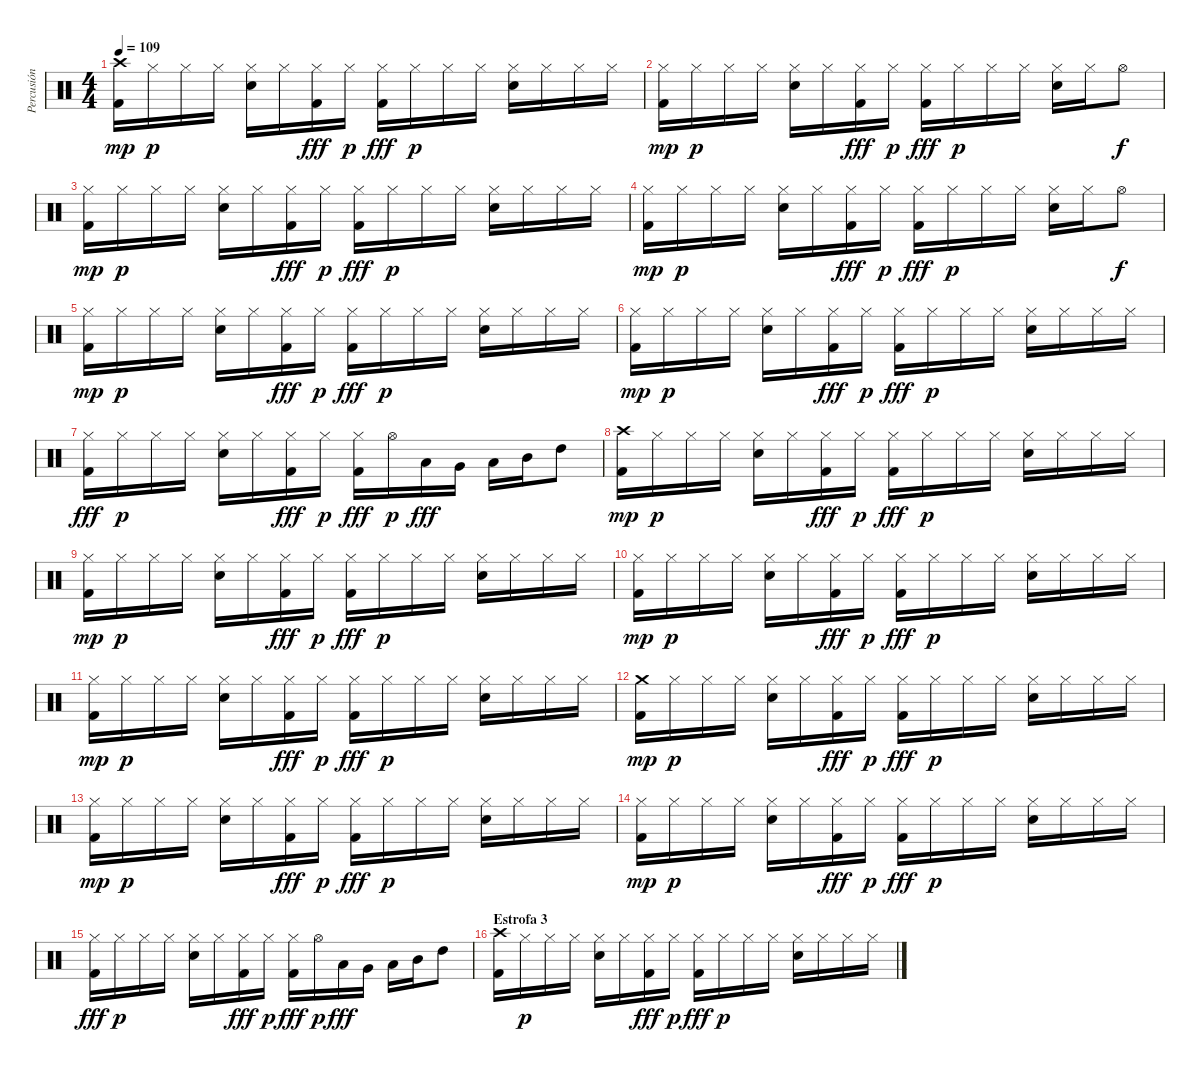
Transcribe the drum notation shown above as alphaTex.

\track ("Percusión" "Percusión") {instrument percussion}
\staff {score}
\articulation defaults
\ts (4 4)
\tempo 109
\clef neutral
\ks c
("Crash high (hit)" "Kick (hit) 2").16{dy mp} "Hi-Hat (closed)".16{dy p} "Hi-Hat (closed)".16 "Hi-Hat (closed)".16 ("Hi-Hat (closed)" "Snare (hit) 2").16 "Hi-Hat (closed)".16 ("Hi-Hat (closed)" "Kick (hit) 2").16{dy fff} "Hi-Hat (closed)".16{dy p} ("Hi-Hat (closed)" "Kick (hit) 2").16{dy fff} "Hi-Hat (closed)".16{dy p} "Hi-Hat (closed)".16 "Hi-Hat (closed)".16 ("Hi-Hat (closed)" "Snare (hit) 2").16 "Hi-Hat (closed)".16 "Hi-Hat (closed)".16 "Hi-Hat (closed)".16 |
("Hi-Hat (closed)" "Kick (hit) 2").16{dy mp} "Hi-Hat (closed)".16{dy p} "Hi-Hat (closed)".16 "Hi-Hat (closed)".16 ("Hi-Hat (closed)" "Snare (hit) 2").16 "Hi-Hat (closed)".16 ("Hi-Hat (closed)" "Kick (hit) 2").16{dy fff} "Hi-Hat (closed)".16{dy p} ("Hi-Hat (closed)" "Kick (hit) 2").16{dy fff} "Hi-Hat (closed)".16{dy p} "Hi-Hat (closed)".16 "Hi-Hat (closed)".16 ("Hi-Hat (closed)" "Snare (hit) 2").16 "Hi-Hat (closed)".16 "Hi-Hat (open)".8{dy f} |
("Hi-Hat (closed)" "Kick (hit) 2").16{dy mp} "Hi-Hat (closed)".16{dy p} "Hi-Hat (closed)".16 "Hi-Hat (closed)".16 ("Hi-Hat (closed)" "Snare (hit) 2").16 "Hi-Hat (closed)".16 ("Hi-Hat (closed)" "Kick (hit) 2").16{dy fff} "Hi-Hat (closed)".16{dy p} ("Hi-Hat (closed)" "Kick (hit) 2").16{dy fff} "Hi-Hat (closed)".16{dy p} "Hi-Hat (closed)".16 "Hi-Hat (closed)".16 ("Hi-Hat (closed)" "Snare (hit) 2").16 "Hi-Hat (closed)".16 "Hi-Hat (closed)".16 "Hi-Hat (closed)".16 |
("Hi-Hat (closed)" "Kick (hit) 2").16{dy mp} "Hi-Hat (closed)".16{dy p} "Hi-Hat (closed)".16 "Hi-Hat (closed)".16 ("Hi-Hat (closed)" "Snare (hit) 2").16 "Hi-Hat (closed)".16 ("Hi-Hat (closed)" "Kick (hit) 2").16{dy fff} "Hi-Hat (closed)".16{dy p} ("Hi-Hat (closed)" "Kick (hit) 2").16{dy fff} "Hi-Hat (closed)".16{dy p} "Hi-Hat (closed)".16 "Hi-Hat (closed)".16 ("Hi-Hat (closed)" "Snare (hit) 2").16 "Hi-Hat (closed)".16 "Hi-Hat (open)".8{dy f} |
("Hi-Hat (closed)" "Kick (hit) 2").16{dy mp} "Hi-Hat (closed)".16{dy p} "Hi-Hat (closed)".16 "Hi-Hat (closed)".16 ("Hi-Hat (closed)" "Snare (hit) 2").16 "Hi-Hat (closed)".16 ("Hi-Hat (closed)" "Kick (hit) 2").16{dy fff} "Hi-Hat (closed)".16{dy p} ("Hi-Hat (closed)" "Kick (hit) 2").16{dy fff} "Hi-Hat (closed)".16{dy p} "Hi-Hat (closed)".16 "Hi-Hat (closed)".16 ("Hi-Hat (closed)" "Snare (hit) 2").16 "Hi-Hat (closed)".16 "Hi-Hat (closed)".16 "Hi-Hat (closed)".16 |
("Hi-Hat (closed)" "Kick (hit) 2").16{dy mp} "Hi-Hat (closed)".16{dy p} "Hi-Hat (closed)".16 "Hi-Hat (closed)".16 ("Hi-Hat (closed)" "Snare (hit) 2").16 "Hi-Hat (closed)".16 ("Hi-Hat (closed)" "Kick (hit) 2").16{dy fff} "Hi-Hat (closed)".16{dy p} ("Hi-Hat (closed)" "Kick (hit) 2").16{dy fff} "Hi-Hat (closed)".16{dy p} "Hi-Hat (closed)".16 "Hi-Hat (closed)".16 ("Hi-Hat (closed)" "Snare (hit) 2").16 "Hi-Hat (closed)".16 "Hi-Hat (closed)".16 "Hi-Hat (closed)".16 |
("Hi-Hat (closed)" "Kick (hit) 2").16{dy fff} "Hi-Hat (closed)".16{dy p} "Hi-Hat (closed)".16 "Hi-Hat (closed)".16 ("Hi-Hat (closed)" "Snare (hit) 2").16 "Hi-Hat (closed)".16 ("Hi-Hat (closed)" "Kick (hit) 2").16{dy fff} "Hi-Hat (closed)".16{dy p} ("Hi-Hat (closed)" "Kick (hit) 2").16{dy fff} "Hi-Hat (open)".16{dy p} "Low Floor Tom (hit)".16{dy fff} "Very Low Tom (hit)".16 "Low Tom (hit)".16 "Mid Tom (hit)".16 "High Tom (hit)".8 |
("Crash high (hit)" "Kick (hit) 2").16{dy mp} "Hi-Hat (closed)".16{dy p} "Hi-Hat (closed)".16 "Hi-Hat (closed)".16 ("Hi-Hat (closed)" "Snare (hit) 2").16 "Hi-Hat (closed)".16 ("Hi-Hat (closed)" "Kick (hit) 2").16{dy fff} "Hi-Hat (closed)".16{dy p} ("Hi-Hat (closed)" "Kick (hit) 2").16{dy fff} "Hi-Hat (closed)".16{dy p} "Hi-Hat (closed)".16 "Hi-Hat (closed)".16 ("Hi-Hat (closed)" "Snare (hit) 2").16 "Hi-Hat (closed)".16 "Hi-Hat (closed)".16 "Hi-Hat (closed)".16 |
("Hi-Hat (closed)" "Kick (hit) 2").16{dy mp} "Hi-Hat (closed)".16{dy p} "Hi-Hat (closed)".16 "Hi-Hat (closed)".16 ("Hi-Hat (closed)" "Snare (hit) 2").16 "Hi-Hat (closed)".16 ("Hi-Hat (closed)" "Kick (hit) 2").16{dy fff} "Hi-Hat (closed)".16{dy p} ("Hi-Hat (closed)" "Kick (hit) 2").16{dy fff} "Hi-Hat (closed)".16{dy p} "Hi-Hat (closed)".16 "Hi-Hat (closed)".16 ("Hi-Hat (closed)" "Snare (hit) 2").16 "Hi-Hat (closed)".16 "Hi-Hat (closed)".16 "Hi-Hat (closed)".16 |
("Hi-Hat (closed)" "Kick (hit) 2").16{dy mp} "Hi-Hat (closed)".16{dy p} "Hi-Hat (closed)".16 "Hi-Hat (closed)".16 ("Hi-Hat (closed)" "Snare (hit) 2").16 "Hi-Hat (closed)".16 ("Hi-Hat (closed)" "Kick (hit) 2").16{dy fff} "Hi-Hat (closed)".16{dy p} ("Hi-Hat (closed)" "Kick (hit) 2").16{dy fff} "Hi-Hat (closed)".16{dy p} "Hi-Hat (closed)".16 "Hi-Hat (closed)".16 ("Hi-Hat (closed)" "Snare (hit) 2").16 "Hi-Hat (closed)".16 "Hi-Hat (closed)".16 "Hi-Hat (closed)".16 |
("Hi-Hat (closed)" "Kick (hit) 2").16{dy mp} "Hi-Hat (closed)".16{dy p} "Hi-Hat (closed)".16 "Hi-Hat (closed)".16 ("Hi-Hat (closed)" "Snare (hit) 2").16 "Hi-Hat (closed)".16 ("Hi-Hat (closed)" "Kick (hit) 2").16{dy fff} "Hi-Hat (closed)".16{dy p} ("Hi-Hat (closed)" "Kick (hit) 2").16{dy fff} "Hi-Hat (closed)".16{dy p} "Hi-Hat (closed)".16 "Hi-Hat (closed)".16 ("Hi-Hat (closed)" "Snare (hit) 2").16 "Hi-Hat (closed)".16 "Hi-Hat (closed)".16 "Hi-Hat (closed)".16 |
("Crash medium (hit)" "Kick (hit) 2").16{dy mp} "Hi-Hat (closed)".16{dy p} "Hi-Hat (closed)".16 "Hi-Hat (closed)".16 ("Hi-Hat (closed)" "Snare (hit) 2").16 "Hi-Hat (closed)".16 ("Hi-Hat (closed)" "Kick (hit) 2").16{dy fff} "Hi-Hat (closed)".16{dy p} ("Hi-Hat (closed)" "Kick (hit) 2").16{dy fff} "Hi-Hat (closed)".16{dy p} "Hi-Hat (closed)".16 "Hi-Hat (closed)".16 ("Hi-Hat (closed)" "Snare (hit) 2").16 "Hi-Hat (closed)".16 "Hi-Hat (closed)".16 "Hi-Hat (closed)".16 |
("Hi-Hat (closed)" "Kick (hit) 2").16{dy mp} "Hi-Hat (closed)".16{dy p} "Hi-Hat (closed)".16 "Hi-Hat (closed)".16 ("Hi-Hat (closed)" "Snare (hit) 2").16 "Hi-Hat (closed)".16 ("Hi-Hat (closed)" "Kick (hit) 2").16{dy fff} "Hi-Hat (closed)".16{dy p} ("Hi-Hat (closed)" "Kick (hit) 2").16{dy fff} "Hi-Hat (closed)".16{dy p} "Hi-Hat (closed)".16 "Hi-Hat (closed)".16 ("Hi-Hat (closed)" "Snare (hit) 2").16 "Hi-Hat (closed)".16 "Hi-Hat (closed)".16 "Hi-Hat (closed)".16 |
("Hi-Hat (closed)" "Kick (hit) 2").16{dy mp} "Hi-Hat (closed)".16{dy p} "Hi-Hat (closed)".16 "Hi-Hat (closed)".16 ("Hi-Hat (closed)" "Snare (hit) 2").16 "Hi-Hat (closed)".16 ("Hi-Hat (closed)" "Kick (hit) 2").16{dy fff} "Hi-Hat (closed)".16{dy p} ("Hi-Hat (closed)" "Kick (hit) 2").16{dy fff} "Hi-Hat (closed)".16{dy p} "Hi-Hat (closed)".16 "Hi-Hat (closed)".16 ("Hi-Hat (closed)" "Snare (hit) 2").16 "Hi-Hat (closed)".16 "Hi-Hat (closed)".16 "Hi-Hat (closed)".16 |
("Hi-Hat (closed)" "Kick (hit) 2").16{dy fff} "Hi-Hat (closed)".16{dy p} "Hi-Hat (closed)".16 "Hi-Hat (closed)".16 ("Hi-Hat (closed)" "Snare (hit) 2").16 "Hi-Hat (closed)".16 ("Hi-Hat (closed)" "Kick (hit) 2").16{dy fff} "Hi-Hat (closed)".16{dy p} ("Hi-Hat (closed)" "Kick (hit) 2").16{dy fff} "Hi-Hat (open)".16{dy p} "Low Floor Tom (hit)".16{dy fff} "Very Low Tom (hit)".16 "Low Tom (hit)".16 "Mid Tom (hit)".16 "High Tom (hit)".8 |
\section ("" "Estrofa 3")
("Crash high (hit)" "Kick (hit) 2").16 "Hi-Hat (closed)".16{dy p} "Hi-Hat (closed)".16 "Hi-Hat (closed)".16 ("Hi-Hat (closed)" "Snare (hit) 2").16 "Hi-Hat (closed)".16 ("Hi-Hat (closed)" "Kick (hit) 2").16{dy fff} "Hi-Hat (closed)".16{dy p} ("Hi-Hat (closed)" "Kick (hit) 2").16{dy fff} "Hi-Hat (closed)".16{dy p} "Hi-Hat (closed)".16 "Hi-Hat (closed)".16 ("Hi-Hat (closed)" "Snare (hit) 2").16 "Hi-Hat (closed)".16 "Hi-Hat (closed)".16 "Hi-Hat (closed)".16
